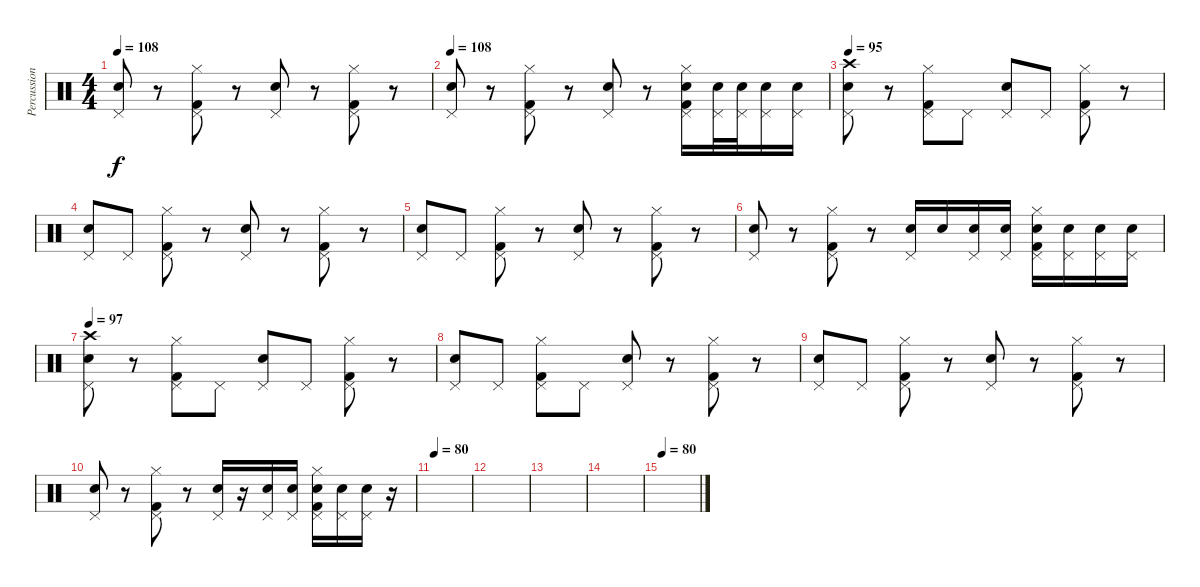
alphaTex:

\track ("Percussion" "Percussion") {instrument percussion}
\staff {score}
\articulation defaults
\ts (4 4)
\tempo 108
\clef neutral
\ks c
("Pedal Hi-Hat (hit)" "Electric Snare (hit)").8{dy f} r.8 ("Kick (hit) 2" "Pedal Hi-Hat (hit)" "Hi-Hat (closed)").8 r.8 ("Pedal Hi-Hat (hit)" "Electric Snare (hit)").8 r.8 ("Kick (hit) 2" "Pedal Hi-Hat (hit)" "Hi-Hat (closed)").8 r.8 |
\tempo 108
("Pedal Hi-Hat (hit)" "Electric Snare (hit)").8 r.8 ("Kick (hit) 2" "Pedal Hi-Hat (hit)" "Hi-Hat (closed)").8 r.8 ("Pedal Hi-Hat (hit)" "Electric Snare (hit)").8 r.8 ("Kick (hit) 2" "Pedal Hi-Hat (hit)" "Electric Snare (hit)" "Hi-Hat (closed)").16 ("Pedal Hi-Hat (hit)" "Electric Snare (hit)").32 ("Pedal Hi-Hat (hit)" "Electric Snare (hit)").32 ("Pedal Hi-Hat (hit)" "Electric Snare (hit)").16 ("Pedal Hi-Hat (hit)" "Electric Snare (hit)").16 |
\tempo 95
("Pedal Hi-Hat (hit)" "Electric Snare (hit)" "Crash high (hit)").8 r.8 ("Kick (hit) 2" "Pedal Hi-Hat (hit)" "Hi-Hat (closed)").8 "Pedal Hi-Hat (hit)".8 ("Pedal Hi-Hat (hit)" "Electric Snare (hit)").8 "Pedal Hi-Hat (hit)".8 ("Kick (hit) 2" "Pedal Hi-Hat (hit)" "Hi-Hat (closed)").8 r.8 |
("Pedal Hi-Hat (hit)" "Electric Snare (hit)").8 "Pedal Hi-Hat (hit)".8 ("Kick (hit) 2" "Pedal Hi-Hat (hit)" "Hi-Hat (closed)").8 r.8 ("Pedal Hi-Hat (hit)" "Electric Snare (hit)").8 r.8 ("Kick (hit) 2" "Pedal Hi-Hat (hit)" "Hi-Hat (closed)").8 r.8 |
("Pedal Hi-Hat (hit)" "Electric Snare (hit)").8 "Pedal Hi-Hat (hit)".8 ("Kick (hit) 2" "Pedal Hi-Hat (hit)" "Hi-Hat (closed)").8 r.8 ("Pedal Hi-Hat (hit)" "Electric Snare (hit)").8 r.8 ("Kick (hit) 2" "Pedal Hi-Hat (hit)" "Hi-Hat (closed)").8 r.8 |
("Pedal Hi-Hat (hit)" "Electric Snare (hit)").8 r.8 ("Kick (hit) 2" "Pedal Hi-Hat (hit)" "Hi-Hat (closed)").8 r.8 ("Pedal Hi-Hat (hit)" "Electric Snare (hit)").16 "Electric Snare (hit)".16 ("Pedal Hi-Hat (hit)" "Electric Snare (hit)").16 ("Pedal Hi-Hat (hit)" "Electric Snare (hit)").16 ("Kick (hit) 2" "Pedal Hi-Hat (hit)" "Electric Snare (hit)" "Hi-Hat (closed)").16 ("Pedal Hi-Hat (hit)" "Electric Snare (hit)").16 ("Pedal Hi-Hat (hit)" "Electric Snare (hit)").16 ("Pedal Hi-Hat (hit)" "Electric Snare (hit)").16 |
\tempo 97
("Pedal Hi-Hat (hit)" "Electric Snare (hit)" "Crash high (hit)").8 r.8 ("Kick (hit) 2" "Pedal Hi-Hat (hit)" "Hi-Hat (closed)").8 "Pedal Hi-Hat (hit)".8 ("Pedal Hi-Hat (hit)" "Electric Snare (hit)").8 "Pedal Hi-Hat (hit)".8 ("Kick (hit) 2" "Pedal Hi-Hat (hit)" "Hi-Hat (closed)").8 r.8 |
("Pedal Hi-Hat (hit)" "Electric Snare (hit)").8 "Pedal Hi-Hat (hit)".8 ("Kick (hit) 2" "Pedal Hi-Hat (hit)" "Hi-Hat (closed)").8 "Pedal Hi-Hat (hit)".8 ("Pedal Hi-Hat (hit)" "Electric Snare (hit)").8 r.8 ("Kick (hit) 2" "Pedal Hi-Hat (hit)" "Hi-Hat (closed)").8 r.8 |
("Pedal Hi-Hat (hit)" "Electric Snare (hit)").8 "Pedal Hi-Hat (hit)".8 ("Kick (hit) 2" "Pedal Hi-Hat (hit)" "Hi-Hat (closed)").8 r.8 ("Pedal Hi-Hat (hit)" "Electric Snare (hit)").8 r.8 ("Kick (hit) 2" "Pedal Hi-Hat (hit)" "Hi-Hat (closed)").8 r.8 |
("Pedal Hi-Hat (hit)" "Electric Snare (hit)").8 r.8 ("Kick (hit) 2" "Pedal Hi-Hat (hit)" "Hi-Hat (closed)").8 r.8 ("Pedal Hi-Hat (hit)" "Electric Snare (hit)").16 r.16 ("Pedal Hi-Hat (hit)" "Electric Snare (hit)").16 ("Pedal Hi-Hat (hit)" "Electric Snare (hit)").16 ("Kick (hit) 2" "Pedal Hi-Hat (hit)" "Electric Snare (hit)" "Hi-Hat (closed)").16 ("Pedal Hi-Hat (hit)" "Electric Snare (hit)").16 ("Pedal Hi-Hat (hit)" "Electric Snare (hit)").16 r.16 |
\tempo 80
|
|
|
|
\tempo 80
